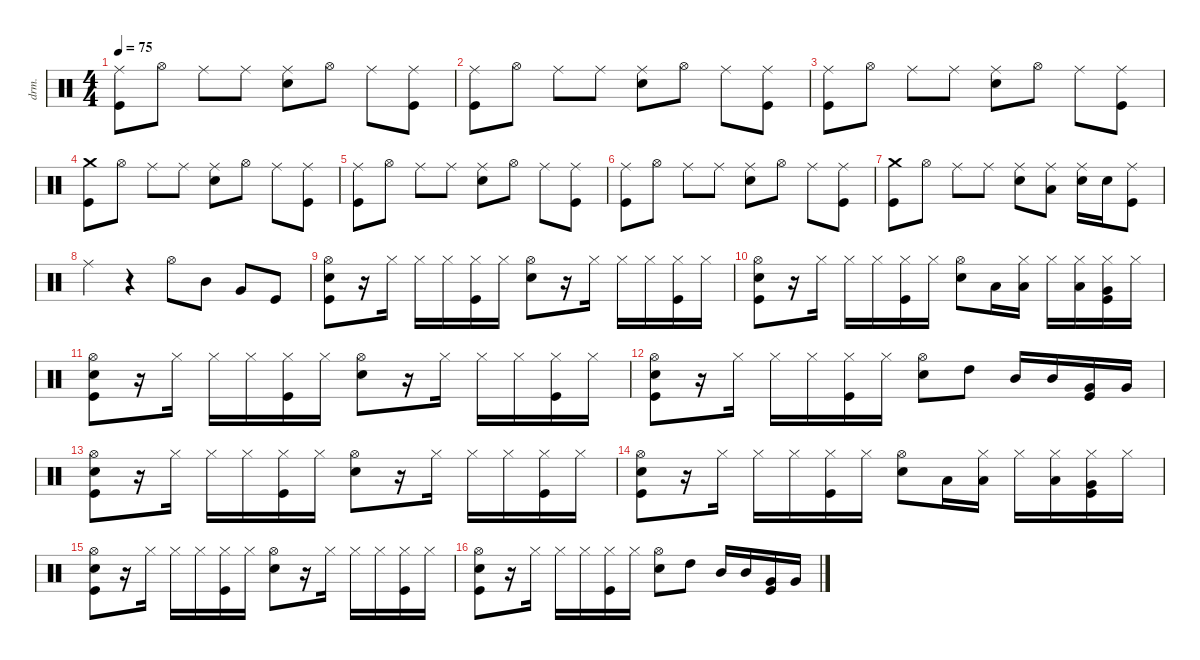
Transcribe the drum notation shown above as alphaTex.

\defaultSystemsLayout 4
\hideDynamics
\bracketExtendMode nobrackets
\otherSystemsTrackNameOrientation horizontal
\track ("Drums" "drm.") {instrument percussion}
\staff {score}
\articulation defaults
\ts (4 4)
\tempo 75
\clef neutral
\ks c
("Ride (middle)" "Kick (hit)").8{dy f beam Down} "Hi-Hat (open)".8{beam Down} "Ride (middle)".8{beam Down} "Ride (middle)".8{beam Down} ("Snare (hit) 2" "Ride (middle)").8{beam Down} "Hi-Hat (open)".8{beam Down} "Ride (middle)".8{beam Down} ("Kick (hit)" "Ride (middle)").8{beam Down} |
("Ride (middle)" "Kick (hit)").8{beam Down} "Hi-Hat (open)".8{beam Down} "Ride (middle)".8{beam Down} "Ride (middle)".8{beam Down} ("Snare (hit) 2" "Ride (middle)").8{beam Down} "Hi-Hat (open)".8{beam Down} "Ride (middle)".8{beam Down} ("Kick (hit)" "Ride (middle)").8{beam Down} |
("Ride (middle)" "Kick (hit)").8{beam Down} "Hi-Hat (open)".8{beam Down} "Ride (middle)".8{beam Down} "Ride (middle)".8{beam Down} ("Snare (hit) 2" "Ride (middle)").8{beam Down} "Hi-Hat (open)".8{beam Down} "Ride (middle)".8{beam Down} ("Kick (hit)" "Ride (middle)").8{beam Down} |
("Crash medium (hit)" "Kick (hit)").8{beam Down} "Hi-Hat (open)".8{beam Down} "Ride (middle)".8{beam Down} "Ride (middle)".8{beam Down} ("Snare (hit) 2" "Ride (middle)").8{beam Down} "Hi-Hat (open)".8{beam Down} "Ride (middle)".8{beam Down} ("Kick (hit)" "Ride (middle)").8{beam Down} |
("Ride (middle)" "Kick (hit)").8{beam Down} "Hi-Hat (open)".8{beam Down} "Ride (middle)".8{beam Down} "Ride (middle)".8{beam Down} ("Snare (hit) 2" "Ride (middle)").8{beam Down} "Hi-Hat (open)".8{beam Down} "Ride (middle)".8{beam Down} ("Kick (hit)" "Ride (middle)").8{beam Down} |
("Ride (middle)" "Kick (hit)").8{beam Down} "Hi-Hat (open)".8{beam Down} "Ride (middle)".8{beam Down} "Ride (middle)".8{beam Down} ("Snare (hit) 2" "Ride (middle)").8{beam Down} "Hi-Hat (open)".8{beam Down} "Ride (middle)".8{beam Down} ("Kick (hit)" "Ride (middle)").8{beam Down} |
("Crash medium (hit)" "Kick (hit)").8{beam Down} "Hi-Hat (open)".8{beam Down} "Ride (middle)".8{beam Down} "Ride (middle)".8{beam Down} ("Snare (hit) 2" "Ride (middle)").8{beam Down} ("Low Floor Tom (hit)" "Ride (middle)").8{beam Down} ("Snare (hit) 2" "Ride (middle)").16{beam Down} "Snare (hit) 2".16{beam Down} ("Kick (hit)" "Ride (middle)").8{beam Down} |
"Ride (middle)".4{beam Down} r.4{beam Down} "Hi-Hat (open)".8{beam Down} "Mid Tom (hit)".8{beam Down} "Very Low Tom (hit)".8{beam Up} "Kick (hit)".8{beam Up} |
("Hi-Hat (open)" "Kick (hit)" "Snare (hit) 2").8{beam Down} r.16{beam Down} "Hi-Hat (closed)".16{beam Down} "Hi-Hat (closed)".16{beam Down} "Hi-Hat (closed)".16{beam Down} ("Kick (hit)" "Hi-Hat (closed)").16{beam Down} "Hi-Hat (closed)".16{beam Down} ("Snare (hit) 2" "Hi-Hat (open)").8{beam Down} r.16{beam Down} "Hi-Hat (closed)".16{beam Down} "Hi-Hat (closed)".16{beam Down} "Hi-Hat (closed)".16{beam Down} ("Kick (hit)" "Hi-Hat (closed)").16{beam Down} "Hi-Hat (closed)".16{beam Down} |
("Hi-Hat (open)" "Kick (hit)" "Snare (hit) 2").8{beam Down} r.16{beam Down} "Hi-Hat (closed)".16{beam Down} "Hi-Hat (closed)".16{beam Down} "Hi-Hat (closed)".16{beam Down} ("Kick (hit)" "Hi-Hat (closed)").16{beam Down} "Hi-Hat (closed)".16{beam Down} ("Snare (hit) 2" "Hi-Hat (open)").8{beam Down} "Low Tom (hit)".16{beam Down} ("Low Tom (hit)" "Hi-Hat (closed)").16{beam Down} "Hi-Hat (closed)".16{beam Down} ("Low Tom (hit)" "Hi-Hat (closed)").16{beam Down} ("Very Low Tom (hit)" "Kick (hit)" "Hi-Hat (closed)").16{beam Down} "Hi-Hat (closed)".16{beam Down} |
("Hi-Hat (open)" "Kick (hit)" "Snare (hit) 2").8{beam Down} r.16{beam Down} "Hi-Hat (closed)".16{beam Down} "Hi-Hat (closed)".16{beam Down} "Hi-Hat (closed)".16{beam Down} ("Kick (hit)" "Hi-Hat (closed)").16{beam Down} "Hi-Hat (closed)".16{beam Down} ("Snare (hit) 2" "Hi-Hat (open)").8{beam Down} r.16{beam Down} "Hi-Hat (closed)".16{beam Down} "Hi-Hat (closed)".16{beam Down} "Hi-Hat (closed)".16{beam Down} ("Kick (hit)" "Hi-Hat (closed)").16{beam Down} "Hi-Hat (closed)".16{beam Down} |
("Hi-Hat (open)" "Kick (hit)" "Snare (hit) 2").8{beam Down} r.16{beam Down} "Hi-Hat (closed)".16{beam Down} "Hi-Hat (closed)".16{beam Down} "Hi-Hat (closed)".16{beam Down} ("Kick (hit)" "Hi-Hat (closed)").16{beam Down} "Hi-Hat (closed)".16{beam Down} ("Snare (hit) 2" "Hi-Hat (open)").8{beam Down} "High Tom (hit)".8{beam Down} "Mid Tom (hit)".16{beam Up} "Mid Tom (hit)".16{beam Up} ("Very Low Tom (hit)" "Kick (hit)").16{beam Up} "Very Low Tom (hit)".16{beam Up} |
("Hi-Hat (open)" "Kick (hit)" "Snare (hit) 2").8{beam Down} r.16{beam Down} "Hi-Hat (closed)".16{beam Down} "Hi-Hat (closed)".16{beam Down} "Hi-Hat (closed)".16{beam Down} ("Kick (hit)" "Hi-Hat (closed)").16{beam Down} "Hi-Hat (closed)".16{beam Down} ("Snare (hit) 2" "Hi-Hat (open)").8{beam Down} r.16{beam Down} "Hi-Hat (closed)".16{beam Down} "Hi-Hat (closed)".16{beam Down} "Hi-Hat (closed)".16{beam Down} ("Kick (hit)" "Hi-Hat (closed)").16{beam Down} "Hi-Hat (closed)".16{beam Down} |
("Hi-Hat (open)" "Kick (hit)" "Snare (hit) 2").8{beam Down} r.16{beam Down} "Hi-Hat (closed)".16{beam Down} "Hi-Hat (closed)".16{beam Down} "Hi-Hat (closed)".16{beam Down} ("Kick (hit)" "Hi-Hat (closed)").16{beam Down} "Hi-Hat (closed)".16{beam Down} ("Snare (hit) 2" "Hi-Hat (open)").8{beam Down} "Low Tom (hit)".16{beam Down} ("Low Tom (hit)" "Hi-Hat (closed)").16{beam Down} "Hi-Hat (closed)".16{beam Down} ("Low Tom (hit)" "Hi-Hat (closed)").16{beam Down} ("Very Low Tom (hit)" "Kick (hit)" "Hi-Hat (closed)").16{beam Down} "Hi-Hat (closed)".16{beam Down} |
("Hi-Hat (open)" "Kick (hit)" "Snare (hit) 2").8{beam Down} r.16{beam Down} "Hi-Hat (closed)".16{beam Down} "Hi-Hat (closed)".16{beam Down} "Hi-Hat (closed)".16{beam Down} ("Kick (hit)" "Hi-Hat (closed)").16{beam Down} "Hi-Hat (closed)".16{beam Down} ("Snare (hit) 2" "Hi-Hat (open)").8{beam Down} r.16{beam Down} "Hi-Hat (closed)".16{beam Down} "Hi-Hat (closed)".16{beam Down} "Hi-Hat (closed)".16{beam Down} ("Kick (hit)" "Hi-Hat (closed)").16{beam Down} "Hi-Hat (closed)".16{beam Down} |
("Hi-Hat (open)" "Kick (hit)" "Snare (hit) 2").8{beam Down} r.16{beam Down} "Hi-Hat (closed)".16{beam Down} "Hi-Hat (closed)".16{beam Down} "Hi-Hat (closed)".16{beam Down} ("Kick (hit)" "Hi-Hat (closed)").16{beam Down} "Hi-Hat (closed)".16{beam Down} ("Snare (hit) 2" "Hi-Hat (open)").8{beam Down} "High Tom (hit)".8{beam Down} "Mid Tom (hit)".16{beam Up} "Mid Tom (hit)".16{beam Up} ("Very Low Tom (hit)" "Kick (hit)").16{beam Up} "Very Low Tom (hit)".16{beam Up}
